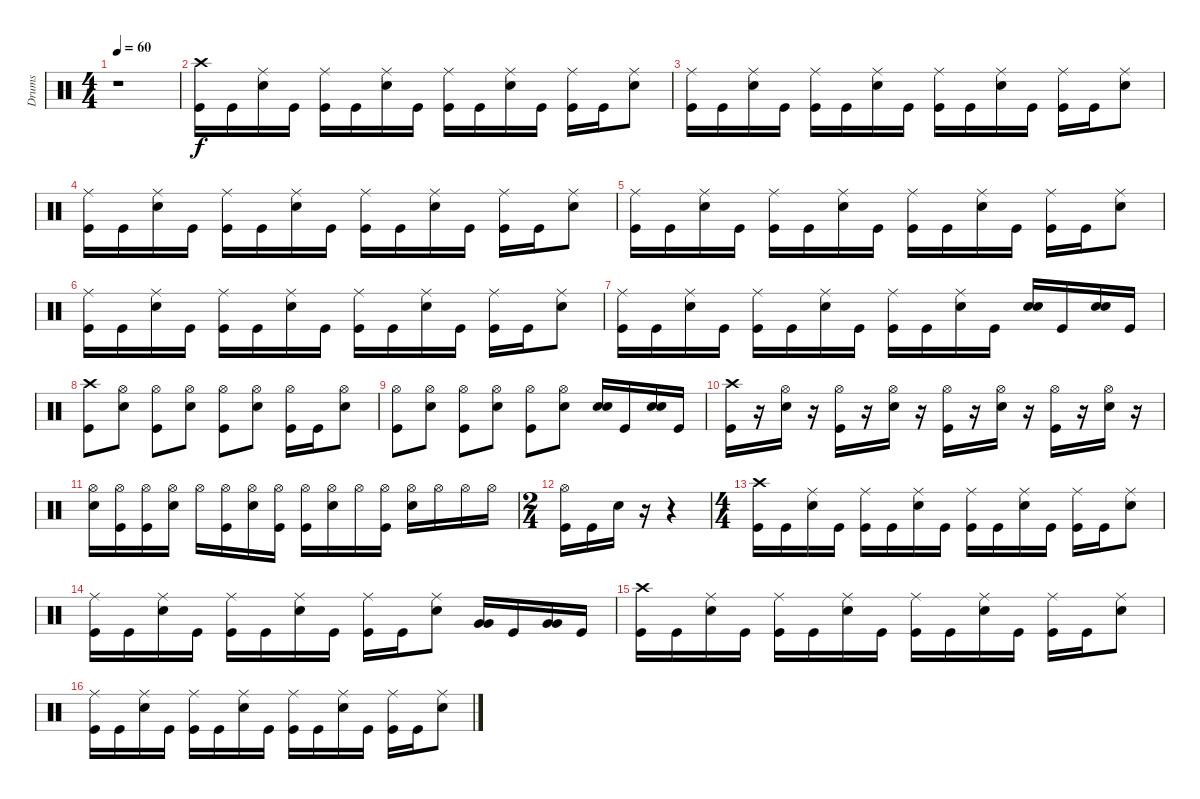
\track ("Drums" "Drums") {instrument percussion}
\staff {score}
\articulation defaults
\ts (4 4)
\tempo 60
\clef neutral
\ks c
r.1{dy f} |
("Crash high (hit)" "Kick (hit)").16 "Kick (hit)".16 ("Ride (middle)" "Snare (hit) 2").16 "Kick (hit)".16 ("Ride (middle)" "Kick (hit)").16 "Kick (hit)".16 ("Ride (middle)" "Snare (hit) 2").16 "Kick (hit)".16 ("Ride (middle)" "Kick (hit)").16 "Kick (hit)".16 ("Ride (middle)" "Snare (hit) 2").16 "Kick (hit)".16 ("Ride (middle)" "Kick (hit)").16 "Kick (hit)".16 ("Ride (middle)" "Snare (hit) 2").8 |
("Ride (middle)" "Kick (hit)").16 "Kick (hit)".16 ("Ride (middle)" "Snare (hit) 2").16 "Kick (hit)".16 ("Ride (middle)" "Kick (hit)").16 "Kick (hit)".16 ("Ride (middle)" "Snare (hit) 2").16 "Kick (hit)".16 ("Ride (middle)" "Kick (hit)").16 "Kick (hit)".16 ("Ride (middle)" "Snare (hit) 2").16 "Kick (hit)".16 ("Ride (middle)" "Kick (hit)").16 "Kick (hit)".16 ("Ride (middle)" "Snare (hit) 2").8 |
("Ride (middle)" "Kick (hit)").16 "Kick (hit)".16 ("Ride (middle)" "Snare (hit) 2").16 "Kick (hit)".16 ("Ride (middle)" "Kick (hit)").16 "Kick (hit)".16 ("Ride (middle)" "Snare (hit) 2").16 "Kick (hit)".16 ("Ride (middle)" "Kick (hit)").16 "Kick (hit)".16 ("Ride (middle)" "Snare (hit) 2").16 "Kick (hit)".16 ("Ride (middle)" "Kick (hit)").16 "Kick (hit)".16 ("Ride (middle)" "Snare (hit) 2").8 |
("Ride (middle)" "Kick (hit)").16 "Kick (hit)".16 ("Ride (middle)" "Snare (hit) 2").16 "Kick (hit)".16 ("Ride (middle)" "Kick (hit)").16 "Kick (hit)".16 ("Ride (middle)" "Snare (hit) 2").16 "Kick (hit)".16 ("Ride (middle)" "Kick (hit)").16 "Kick (hit)".16 ("Ride (middle)" "Snare (hit) 2").16 "Kick (hit)".16 ("Ride (middle)" "Kick (hit)").16 "Kick (hit)".16 ("Ride (middle)" "Snare (hit) 2").8 |
("Ride (middle)" "Kick (hit)").16 "Kick (hit)".16 ("Ride (middle)" "Snare (hit) 2").16 "Kick (hit)".16 ("Ride (middle)" "Kick (hit)").16 "Kick (hit)".16 ("Ride (middle)" "Snare (hit) 2").16 "Kick (hit)".16 ("Ride (middle)" "Kick (hit)").16 "Kick (hit)".16 ("Ride (middle)" "Snare (hit) 2").16 "Kick (hit)".16 ("Ride (middle)" "Kick (hit)").16 "Kick (hit)".16 ("Ride (middle)" "Snare (hit) 2").8 |
("Ride (middle)" "Kick (hit)").16 "Kick (hit)".16 ("Ride (middle)" "Snare (hit) 2").16 "Kick (hit)".16 ("Ride (middle)" "Kick (hit)").16 "Kick (hit)".16 ("Ride (middle)" "Snare (hit) 2").16 "Kick (hit)".16 ("Ride (middle)" "Kick (hit)").16 "Kick (hit)".16 ("Ride (middle)" "Snare (hit) 2").16 "Kick (hit)".16 ("Snare (hit) 2" "Snare (hit) 2").16 "Kick (hit)".16 ("Snare (hit) 2" "Snare (hit) 2").16 "Kick (hit)".16 |
("Crash high (hit)" "Kick (hit)").8 ("Hi-Hat (open)" "Snare (hit) 2").8 ("Hi-Hat (open)" "Kick (hit)").8 ("Hi-Hat (open)" "Snare (hit) 2").8 ("Hi-Hat (open)" "Kick (hit)").8 ("Hi-Hat (open)" "Snare (hit) 2").8 ("Hi-Hat (open)" "Kick (hit)").16 "Kick (hit)".16 ("Hi-Hat (open)" "Snare (hit) 2").8 |
("Hi-Hat (open)" "Kick (hit)").8 ("Hi-Hat (open)" "Snare (hit) 2").8 ("Hi-Hat (open)" "Kick (hit)").8 ("Hi-Hat (open)" "Snare (hit) 2").8 ("Hi-Hat (open)" "Kick (hit)").8 ("Hi-Hat (open)" "Snare (hit) 2").8 ("Snare (hit) 2" "Snare (hit) 2").16 "Kick (hit)".16 ("Snare (hit) 2" "Snare (hit) 2").16 "Kick (hit)".16 |
("Crash high (hit)" "Kick (hit)").16 r.16 ("Hi-Hat (open)" "Snare (hit) 2").16 r.16 ("Hi-Hat (open)" "Kick (hit)").16 r.16 ("Hi-Hat (open)" "Snare (hit) 2").16 r.16 ("Hi-Hat (open)" "Kick (hit)").16 r.16 ("Hi-Hat (open)" "Snare (hit) 2").16 r.16 ("Hi-Hat (open)" "Kick (hit)").16 r.16 ("Hi-Hat (open)" "Snare (hit) 2").16 r.16 |
("Hi-Hat (open)" "Snare (hit) 2").16 ("Hi-Hat (open)" "Kick (hit)").16 ("Hi-Hat (open)" "Kick (hit)").16 ("Hi-Hat (open)" "Snare (hit) 2").16 "Hi-Hat (open)".16 ("Hi-Hat (open)" "Kick (hit)").16 ("Hi-Hat (open)" "Snare (hit) 2").16 ("Hi-Hat (open)" "Kick (hit)").16 ("Hi-Hat (open)" "Kick (hit)").16 ("Hi-Hat (open)" "Snare (hit) 2").16 "Hi-Hat (open)".16 ("Hi-Hat (open)" "Kick (hit)").16 ("Hi-Hat (open)" "Snare (hit) 2").16 "Hi-Hat (open)".16 "Hi-Hat (open)".16 "Hi-Hat (open)".16 |
\ts (2 4)
("Hi-Hat (open)" "Kick (hit)").16 "Kick (hit)".16 "Snare (hit) 2".16 r.16 r.4 |
\ts (4 4)
("Crash high (hit)" "Kick (hit)").16 "Kick (hit)".16 ("Ride (middle)" "Snare (hit) 2").16 "Kick (hit)".16 ("Ride (middle)" "Kick (hit)").16 "Kick (hit)".16 ("Ride (middle)" "Snare (hit) 2").16 "Kick (hit)".16 ("Ride (middle)" "Kick (hit)").16 "Kick (hit)".16 ("Ride (middle)" "Snare (hit) 2").16 "Kick (hit)".16 ("Ride (middle)" "Kick (hit)").16 "Kick (hit)".16 ("Ride (middle)" "Snare (hit) 2").8 |
("Ride (middle)" "Kick (hit)").16 "Kick (hit)".16 ("Ride (middle)" "Snare (hit) 2").16 "Kick (hit)".16 ("Ride (middle)" "Kick (hit)").16 "Kick (hit)".16 ("Ride (middle)" "Snare (hit) 2").16 "Kick (hit)".16 ("Ride (middle)" "Kick (hit)").16 "Kick (hit)".16 ("Ride (middle)" "Snare (hit) 2").8 ("Very Low Tom (hit)" "Very Low Tom (hit)").16 "Kick (hit)".16 ("Very Low Tom (hit)" "Very Low Tom (hit)").16 "Kick (hit)".16 |
("Crash high (hit)" "Kick (hit)").16 "Kick (hit)".16 ("Ride (middle)" "Snare (hit) 2").16 "Kick (hit)".16 ("Ride (middle)" "Kick (hit)").16 "Kick (hit)".16 ("Ride (middle)" "Snare (hit) 2").16 "Kick (hit)".16 ("Ride (middle)" "Kick (hit)").16 "Kick (hit)".16 ("Ride (middle)" "Snare (hit) 2").16 "Kick (hit)".16 ("Ride (middle)" "Kick (hit)").16 "Kick (hit)".16 ("Ride (middle)" "Snare (hit) 2").8 |
("Ride (middle)" "Kick (hit)").16 "Kick (hit)".16 ("Ride (middle)" "Snare (hit) 2").16 "Kick (hit)".16 ("Ride (middle)" "Kick (hit)").16 "Kick (hit)".16 ("Ride (middle)" "Snare (hit) 2").16 "Kick (hit)".16 ("Ride (middle)" "Kick (hit)").16 "Kick (hit)".16 ("Ride (middle)" "Snare (hit) 2").16 "Kick (hit)".16 ("Ride (middle)" "Kick (hit)").16 "Kick (hit)".16 ("Ride (middle)" "Snare (hit) 2").8
